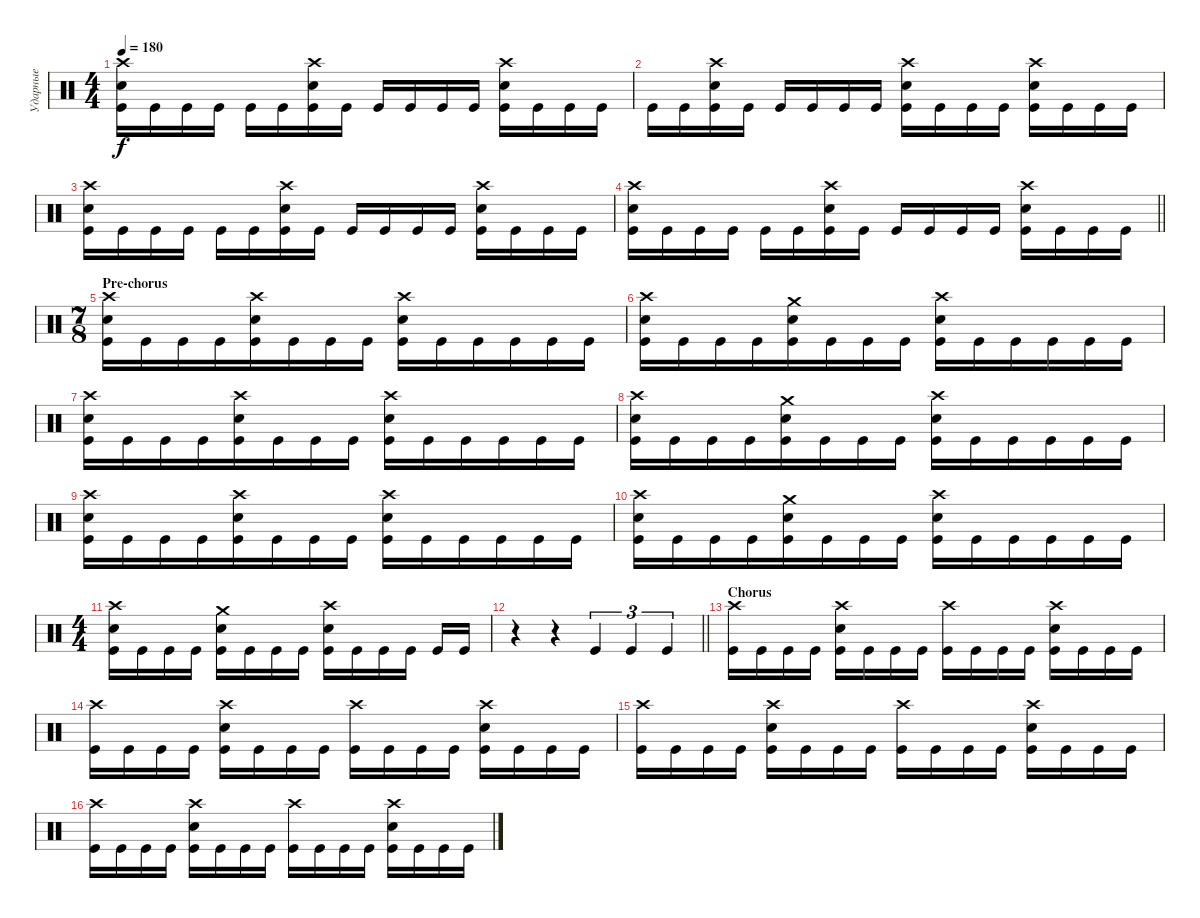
\track ("Ударные" "Ударные") {instrument percussion}
\staff {score}
\articulation defaults
\ts (4 4)
\tempo 180
\clef neutral
\ks c
("Crash high (hit)" "Electric Snare (hit)" "Kick (hit)").16{dy f} "Kick (hit)".16 "Kick (hit)".16 "Kick (hit)".16 "Kick (hit)".16 "Kick (hit)".16 ("Crash high (hit)" "Electric Snare (hit)" "Kick (hit)").16 "Kick (hit)".16 "Kick (hit)".16 "Kick (hit)".16 "Kick (hit)".16 "Kick (hit)".16 ("Crash high (hit)" "Electric Snare (hit)" "Kick (hit)").16 "Kick (hit)".16 "Kick (hit)".16 "Kick (hit)".16 |
"Kick (hit)".16 "Kick (hit)".16 ("Crash high (hit)" "Electric Snare (hit)" "Kick (hit)").16 "Kick (hit)".16 "Kick (hit)".16 "Kick (hit)".16 "Kick (hit)".16 "Kick (hit)".16 ("Crash high (hit)" "Electric Snare (hit)" "Kick (hit)").16 "Kick (hit)".16 "Kick (hit)".16 "Kick (hit)".16 ("Crash high (hit)" "Electric Snare (hit)" "Kick (hit)").16 "Kick (hit)".16 "Kick (hit)".16 "Kick (hit)".16 |
("Crash high (hit)" "Electric Snare (hit)" "Kick (hit)").16 "Kick (hit)".16 "Kick (hit)".16 "Kick (hit)".16 "Kick (hit)".16 "Kick (hit)".16 ("Crash high (hit)" "Electric Snare (hit)" "Kick (hit)").16 "Kick (hit)".16 "Kick (hit)".16 "Kick (hit)".16 "Kick (hit)".16 "Kick (hit)".16 ("Crash high (hit)" "Electric Snare (hit)" "Kick (hit)").16 "Kick (hit)".16 "Kick (hit)".16 "Kick (hit)".16 |
\barLineRight lightlight
("Crash high (hit)" "Electric Snare (hit)" "Kick (hit)").16 "Kick (hit)".16 "Kick (hit)".16 "Kick (hit)".16 "Kick (hit)".16 "Kick (hit)".16 ("Crash high (hit)" "Electric Snare (hit)" "Kick (hit)").16 "Kick (hit)".16 "Kick (hit)".16 "Kick (hit)".16 "Kick (hit)".16 "Kick (hit)".16 ("Crash high (hit)" "Electric Snare (hit)" "Kick (hit)").16 "Kick (hit)".16 "Kick (hit)".16 "Kick (hit)".16 |
\ts (7 8)
\section ("" "Pre-chorus")
("Crash high (hit)" "Electric Snare (hit)" "Kick (hit)").16 "Kick (hit)".16 "Kick (hit)".16 "Kick (hit)".16 ("Crash high (hit)" "Electric Snare (hit)" "Kick (hit)").16 "Kick (hit)".16 "Kick (hit)".16 "Kick (hit)".16 ("Crash high (hit)" "Electric Snare (hit)" "Kick (hit)").16 "Kick (hit)".16 "Kick (hit)".16 "Kick (hit)".16 "Kick (hit)".16 "Kick (hit)".16 |
("Crash high (hit)" "Electric Snare (hit)" "Kick (hit)").16 "Kick (hit)".16 "Kick (hit)".16 "Kick (hit)".16 ("Crash medium (hit)" "Electric Snare (hit)" "Kick (hit)").16 "Kick (hit)".16 "Kick (hit)".16 "Kick (hit)".16 ("Crash high (hit)" "Electric Snare (hit)" "Kick (hit)").16 "Kick (hit)".16 "Kick (hit)".16 "Kick (hit)".16 "Kick (hit)".16 "Kick (hit)".16 |
("Crash high (hit)" "Electric Snare (hit)" "Kick (hit)").16 "Kick (hit)".16 "Kick (hit)".16 "Kick (hit)".16 ("Crash high (hit)" "Electric Snare (hit)" "Kick (hit)").16 "Kick (hit)".16 "Kick (hit)".16 "Kick (hit)".16 ("Crash high (hit)" "Electric Snare (hit)" "Kick (hit)").16 "Kick (hit)".16 "Kick (hit)".16 "Kick (hit)".16 "Kick (hit)".16 "Kick (hit)".16 |
("Crash high (hit)" "Electric Snare (hit)" "Kick (hit)").16 "Kick (hit)".16 "Kick (hit)".16 "Kick (hit)".16 ("Crash medium (hit)" "Electric Snare (hit)" "Kick (hit)").16 "Kick (hit)".16 "Kick (hit)".16 "Kick (hit)".16 ("Crash high (hit)" "Electric Snare (hit)" "Kick (hit)").16 "Kick (hit)".16 "Kick (hit)".16 "Kick (hit)".16 "Kick (hit)".16 "Kick (hit)".16 |
("Crash high (hit)" "Electric Snare (hit)" "Kick (hit)").16 "Kick (hit)".16 "Kick (hit)".16 "Kick (hit)".16 ("Crash high (hit)" "Electric Snare (hit)" "Kick (hit)").16 "Kick (hit)".16 "Kick (hit)".16 "Kick (hit)".16 ("Crash high (hit)" "Electric Snare (hit)" "Kick (hit)").16 "Kick (hit)".16 "Kick (hit)".16 "Kick (hit)".16 "Kick (hit)".16 "Kick (hit)".16 |
("Crash high (hit)" "Electric Snare (hit)" "Kick (hit)").16 "Kick (hit)".16 "Kick (hit)".16 "Kick (hit)".16 ("Crash medium (hit)" "Electric Snare (hit)" "Kick (hit)").16 "Kick (hit)".16 "Kick (hit)".16 "Kick (hit)".16 ("Crash high (hit)" "Electric Snare (hit)" "Kick (hit)").16 "Kick (hit)".16 "Kick (hit)".16 "Kick (hit)".16 "Kick (hit)".16 "Kick (hit)".16 |
\ts (4 4)
("Crash high (hit)" "Electric Snare (hit)" "Kick (hit)").16 "Kick (hit)".16 "Kick (hit)".16 "Kick (hit)".16 ("Crash medium (hit)" "Electric Snare (hit)" "Kick (hit)").16 "Kick (hit)".16 "Kick (hit)".16 "Kick (hit)".16 ("Crash high (hit)" "Electric Snare (hit)" "Kick (hit)").16 "Kick (hit)".16 "Kick (hit)".16 "Kick (hit)".16 "Kick (hit)".16 "Kick (hit)".16 |
\barLineRight lightlight
r.4 r.4 "Kick (hit)".4{tu (3 2)} "Kick (hit)".4{tu (3 2)} "Kick (hit)".4{tu (3 2)} |
\section ("" "Chorus")
("Crash high (hit)" "Kick (hit)").16 "Kick (hit)".16 "Kick (hit)".16 "Kick (hit)".16 ("Crash high (hit)" "Electric Snare (hit)" "Kick (hit)").16 "Kick (hit)".16 "Kick (hit)".16 "Kick (hit)".16 ("Crash high (hit)" "Kick (hit)").16 "Kick (hit)".16 "Kick (hit)".16 "Kick (hit)".16 ("Crash high (hit)" "Electric Snare (hit)" "Kick (hit)").16 "Kick (hit)".16 "Kick (hit)".16 "Kick (hit)".16 |
("Crash high (hit)" "Kick (hit)").16 "Kick (hit)".16 "Kick (hit)".16 "Kick (hit)".16 ("Crash high (hit)" "Electric Snare (hit)" "Kick (hit)").16 "Kick (hit)".16 "Kick (hit)".16 "Kick (hit)".16 ("Crash high (hit)" "Kick (hit)").16 "Kick (hit)".16 "Kick (hit)".16 "Kick (hit)".16 ("Crash high (hit)" "Electric Snare (hit)" "Kick (hit)").16 "Kick (hit)".16 "Kick (hit)".16 "Kick (hit)".16 |
("Crash high (hit)" "Kick (hit)").16 "Kick (hit)".16 "Kick (hit)".16 "Kick (hit)".16 ("Crash high (hit)" "Electric Snare (hit)" "Kick (hit)").16 "Kick (hit)".16 "Kick (hit)".16 "Kick (hit)".16 ("Crash high (hit)" "Kick (hit)").16 "Kick (hit)".16 "Kick (hit)".16 "Kick (hit)".16 ("Crash high (hit)" "Electric Snare (hit)" "Kick (hit)").16 "Kick (hit)".16 "Kick (hit)".16 "Kick (hit)".16 |
("Crash high (hit)" "Kick (hit)").16 "Kick (hit)".16 "Kick (hit)".16 "Kick (hit)".16 ("Crash high (hit)" "Electric Snare (hit)" "Kick (hit)").16 "Kick (hit)".16 "Kick (hit)".16 "Kick (hit)".16 ("Crash high (hit)" "Kick (hit)").16 "Kick (hit)".16 "Kick (hit)".16 "Kick (hit)".16 ("Crash high (hit)" "Electric Snare (hit)" "Kick (hit)").16 "Kick (hit)".16 "Kick (hit)".16 "Kick (hit)".16
